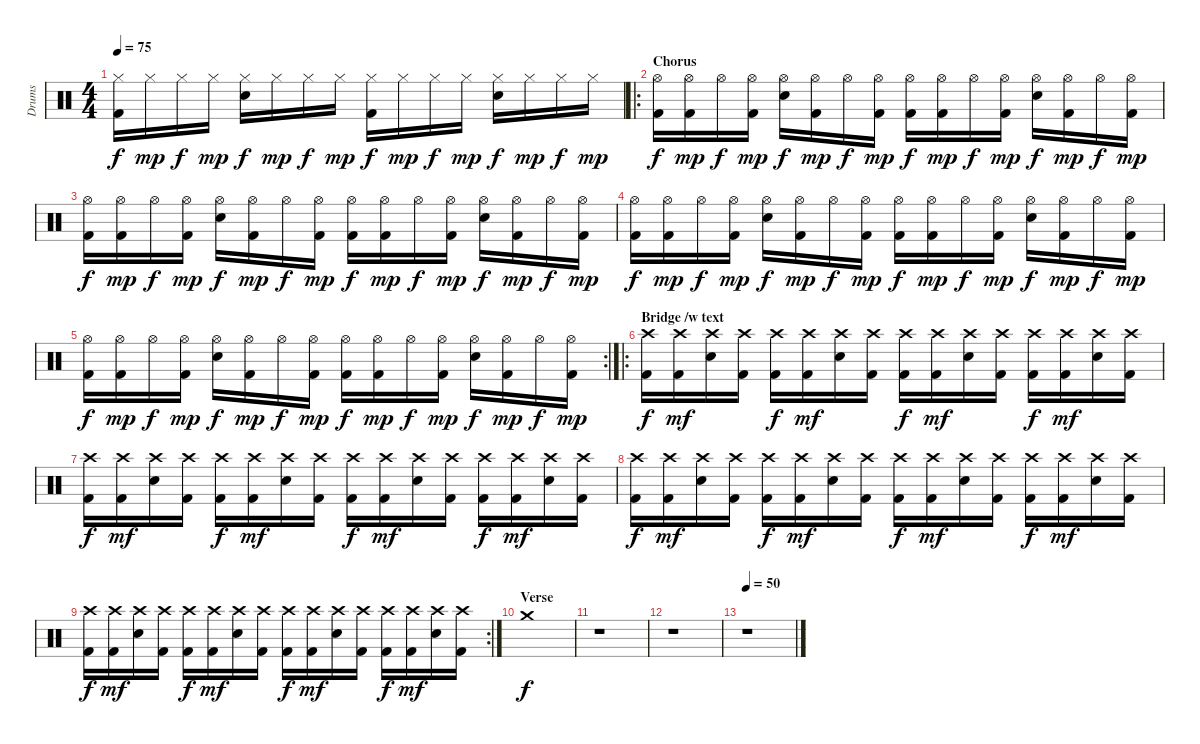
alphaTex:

\track ("Drums" "Drums") {instrument percussion}
\staff {score}
\articulation defaults
\ts (4 4)
\tempo 75
\clef neutral
\ks c
("Hi-Hat (closed)" "Kick (hit) 2").16{dy f} "Hi-Hat (closed)".16{dy mp} "Hi-Hat (closed)".16{dy f} "Hi-Hat (closed)".16{dy mp} ("Hi-Hat (closed)" "Snare (hit) 2").16{dy f} "Hi-Hat (closed)".16{dy mp} "Hi-Hat (closed)".16{dy f} "Hi-Hat (closed)".16{dy mp} ("Hi-Hat (closed)" "Kick (hit) 2").16{dy f} "Hi-Hat (closed)".16{dy mp} "Hi-Hat (closed)".16{dy f} "Hi-Hat (closed)".16{dy mp} ("Hi-Hat (closed)" "Snare (hit) 2").16{dy f} "Hi-Hat (closed)".16{dy mp} "Hi-Hat (closed)".16{dy f} "Hi-Hat (closed)".16{dy mp} |
\ro
\section ("" "Chorus")
("Hi-Hat (open)" "Kick (hit) 2").16{dy f} ("Hi-Hat (open)" "Kick (hit) 2").16{dy mp} "Hi-Hat (open)".16{dy f} ("Hi-Hat (open)" "Kick (hit) 2").16{dy mp} ("Hi-Hat (open)" "Snare (hit) 2").16{dy f} ("Hi-Hat (open)" "Kick (hit) 2").16{dy mp} "Hi-Hat (open)".16{dy f} ("Hi-Hat (open)" "Kick (hit) 2").16{dy mp} ("Hi-Hat (open)" "Kick (hit) 2").16{dy f} ("Hi-Hat (open)" "Kick (hit) 2").16{dy mp} "Hi-Hat (open)".16{dy f} ("Hi-Hat (open)" "Kick (hit) 2").16{dy mp} ("Hi-Hat (open)" "Snare (hit) 2").16{dy f} ("Hi-Hat (open)" "Kick (hit) 2").16{dy mp} "Hi-Hat (open)".16{dy f} ("Hi-Hat (open)" "Kick (hit) 2").16{dy mp} |
("Hi-Hat (open)" "Kick (hit) 2").16{dy f} ("Hi-Hat (open)" "Kick (hit) 2").16{dy mp} "Hi-Hat (open)".16{dy f} ("Hi-Hat (open)" "Kick (hit) 2").16{dy mp} ("Hi-Hat (open)" "Snare (hit) 2").16{dy f} ("Hi-Hat (open)" "Kick (hit) 2").16{dy mp} "Hi-Hat (open)".16{dy f} ("Hi-Hat (open)" "Kick (hit) 2").16{dy mp} ("Hi-Hat (open)" "Kick (hit) 2").16{dy f} ("Hi-Hat (open)" "Kick (hit) 2").16{dy mp} "Hi-Hat (open)".16{dy f} ("Hi-Hat (open)" "Kick (hit) 2").16{dy mp} ("Hi-Hat (open)" "Snare (hit) 2").16{dy f} ("Hi-Hat (open)" "Kick (hit) 2").16{dy mp} "Hi-Hat (open)".16{dy f} ("Hi-Hat (open)" "Kick (hit) 2").16{dy mp} |
("Hi-Hat (open)" "Kick (hit) 2").16{dy f} ("Hi-Hat (open)" "Kick (hit) 2").16{dy mp} "Hi-Hat (open)".16{dy f} ("Hi-Hat (open)" "Kick (hit) 2").16{dy mp} ("Hi-Hat (open)" "Snare (hit) 2").16{dy f} ("Hi-Hat (open)" "Kick (hit) 2").16{dy mp} "Hi-Hat (open)".16{dy f} ("Hi-Hat (open)" "Kick (hit) 2").16{dy mp} ("Hi-Hat (open)" "Kick (hit) 2").16{dy f} ("Hi-Hat (open)" "Kick (hit) 2").16{dy mp} "Hi-Hat (open)".16{dy f} ("Hi-Hat (open)" "Kick (hit) 2").16{dy mp} ("Hi-Hat (open)" "Snare (hit) 2").16{dy f} ("Hi-Hat (open)" "Kick (hit) 2").16{dy mp} "Hi-Hat (open)".16{dy f} ("Hi-Hat (open)" "Kick (hit) 2").16{dy mp} |
\rc 2
("Hi-Hat (open)" "Kick (hit) 2").16{dy f} ("Hi-Hat (open)" "Kick (hit) 2").16{dy mp} "Hi-Hat (open)".16{dy f} ("Hi-Hat (open)" "Kick (hit) 2").16{dy mp} ("Hi-Hat (open)" "Snare (hit) 2").16{dy f} ("Hi-Hat (open)" "Kick (hit) 2").16{dy mp} "Hi-Hat (open)".16{dy f} ("Hi-Hat (open)" "Kick (hit) 2").16{dy mp} ("Hi-Hat (open)" "Kick (hit) 2").16{dy f} ("Hi-Hat (open)" "Kick (hit) 2").16{dy mp} "Hi-Hat (open)".16{dy f} ("Hi-Hat (open)" "Kick (hit) 2").16{dy mp} ("Hi-Hat (open)" "Snare (hit) 2").16{dy f} ("Hi-Hat (open)" "Kick (hit) 2").16{dy mp} "Hi-Hat (open)".16{dy f} ("Hi-Hat (open)" "Kick (hit) 2").16{dy mp} |
\ro
\section ("" "Bridge /w text")
("Crash high (hit)" "Kick (hit) 2").16{dy f} ("Crash high (hit)" "Kick (hit) 2").16{dy mf} ("Crash high (hit)" "Snare (hit) 2").16 ("Crash high (hit)" "Kick (hit) 2").16 ("Crash high (hit)" "Kick (hit) 2").16{dy f} ("Crash high (hit)" "Kick (hit) 2").16{dy mf} ("Crash high (hit)" "Snare (hit) 2").16 ("Crash high (hit)" "Kick (hit) 2").16 ("Crash high (hit)" "Kick (hit) 2").16{dy f} ("Crash high (hit)" "Kick (hit) 2").16{dy mf} ("Crash high (hit)" "Snare (hit) 2").16 ("Crash high (hit)" "Kick (hit) 2").16 ("Crash high (hit)" "Kick (hit) 2").16{dy f} ("Crash high (hit)" "Kick (hit) 2").16{dy mf} ("Crash high (hit)" "Snare (hit) 2").16 ("Crash high (hit)" "Kick (hit) 2").16 |
("Crash high (hit)" "Kick (hit) 2").16{dy f} ("Crash high (hit)" "Kick (hit) 2").16{dy mf} ("Crash high (hit)" "Snare (hit) 2").16 ("Crash high (hit)" "Kick (hit) 2").16 ("Crash high (hit)" "Kick (hit) 2").16{dy f} ("Crash high (hit)" "Kick (hit) 2").16{dy mf} ("Crash high (hit)" "Snare (hit) 2").16 ("Crash high (hit)" "Kick (hit) 2").16 ("Crash high (hit)" "Kick (hit) 2").16{dy f} ("Crash high (hit)" "Kick (hit) 2").16{dy mf} ("Crash high (hit)" "Snare (hit) 2").16 ("Crash high (hit)" "Kick (hit) 2").16 ("Crash high (hit)" "Kick (hit) 2").16{dy f} ("Crash high (hit)" "Kick (hit) 2").16{dy mf} ("Crash high (hit)" "Snare (hit) 2").16 ("Crash high (hit)" "Kick (hit) 2").16 |
("Crash high (hit)" "Kick (hit) 2").16{dy f} ("Crash high (hit)" "Kick (hit) 2").16{dy mf} ("Crash high (hit)" "Snare (hit) 2").16 ("Crash high (hit)" "Kick (hit) 2").16 ("Crash high (hit)" "Kick (hit) 2").16{dy f} ("Crash high (hit)" "Kick (hit) 2").16{dy mf} ("Crash high (hit)" "Snare (hit) 2").16 ("Crash high (hit)" "Kick (hit) 2").16 ("Crash high (hit)" "Kick (hit) 2").16{dy f} ("Crash high (hit)" "Kick (hit) 2").16{dy mf} ("Crash high (hit)" "Snare (hit) 2").16 ("Crash high (hit)" "Kick (hit) 2").16 ("Crash high (hit)" "Kick (hit) 2").16{dy f} ("Crash high (hit)" "Kick (hit) 2").16{dy mf} ("Crash high (hit)" "Snare (hit) 2").16 ("Crash high (hit)" "Kick (hit) 2").16 |
\rc 2
("Crash high (hit)" "Kick (hit) 2").16{dy f} ("Crash high (hit)" "Kick (hit) 2").16{dy mf} ("Crash high (hit)" "Snare (hit) 2").16 ("Crash high (hit)" "Kick (hit) 2").16 ("Crash high (hit)" "Kick (hit) 2").16{dy f} ("Crash high (hit)" "Kick (hit) 2").16{dy mf} ("Crash high (hit)" "Snare (hit) 2").16 ("Crash high (hit)" "Kick (hit) 2").16 ("Crash high (hit)" "Kick (hit) 2").16{dy f} ("Crash high (hit)" "Kick (hit) 2").16{dy mf} ("Crash high (hit)" "Snare (hit) 2").16 ("Crash high (hit)" "Kick (hit) 2").16 ("Crash high (hit)" "Kick (hit) 2").16{dy f} ("Crash high (hit)" "Kick (hit) 2").16{dy mf} ("Crash high (hit)" "Snare (hit) 2").16 ("Crash high (hit)" "Kick (hit) 2").16 |
\section ("" "Verse")
"Crash medium (hit)".1{dy f} |
r.1 |
r.1 |
\tempo 50
r.1
